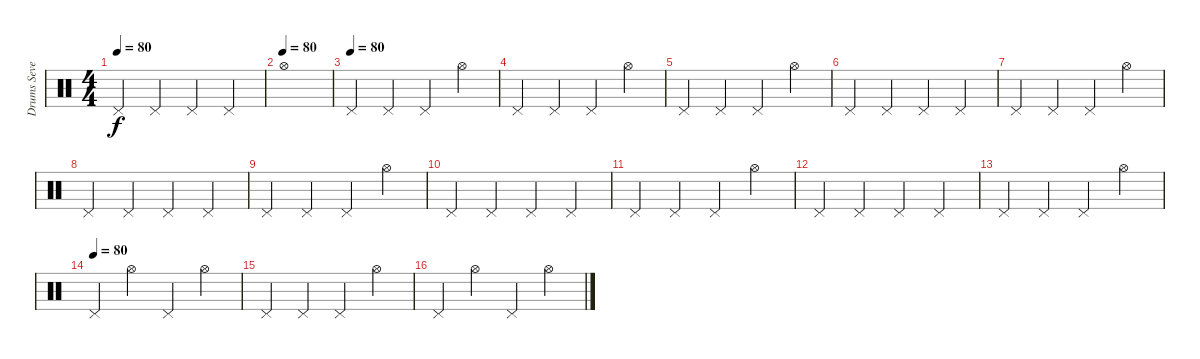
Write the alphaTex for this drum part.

\track ("Drums Severin " "Drums Seve") {instrument percussion}
\staff {score}
\articulation defaults
\ts (4 4)
\tempo 80
\clef neutral
\ks c "Pedal Hi-Hat (hit)".4{dy f} "Pedal Hi-Hat (hit)".4 "Pedal Hi-Hat (hit)".4 "Pedal Hi-Hat (hit)".4
|
\tempo (80)
"Hi-Hat (open)".1 |
\tempo (80)
"Pedal Hi-Hat (hit)".4 "Pedal Hi-Hat (hit)".4 "Pedal Hi-Hat (hit)".4 "Hi-Hat (open)".4 |
"Pedal Hi-Hat (hit)".4 "Pedal Hi-Hat (hit)".4 "Pedal Hi-Hat (hit)".4 "Hi-Hat (open)".4 |
"Pedal Hi-Hat (hit)".4 "Pedal Hi-Hat (hit)".4 "Pedal Hi-Hat (hit)".4 "Hi-Hat (open)".4 |
"Pedal Hi-Hat (hit)".4 "Pedal Hi-Hat (hit)".4 "Pedal Hi-Hat (hit)".4 "Pedal Hi-Hat (hit)".4 |
"Pedal Hi-Hat (hit)".4 "Pedal Hi-Hat (hit)".4 "Pedal Hi-Hat (hit)".4 "Hi-Hat (open)".4 |
"Pedal Hi-Hat (hit)".4 "Pedal Hi-Hat (hit)".4 "Pedal Hi-Hat (hit)".4 "Pedal Hi-Hat (hit)".4 |
"Pedal Hi-Hat (hit)".4 "Pedal Hi-Hat (hit)".4 "Pedal Hi-Hat (hit)".4 "Hi-Hat (open)".4 |
"Pedal Hi-Hat (hit)".4 "Pedal Hi-Hat (hit)".4 "Pedal Hi-Hat (hit)".4 "Pedal Hi-Hat (hit)".4 |
"Pedal Hi-Hat (hit)".4 "Pedal Hi-Hat (hit)".4 "Pedal Hi-Hat (hit)".4 "Hi-Hat (open)".4 |
"Pedal Hi-Hat (hit)".4 "Pedal Hi-Hat (hit)".4 "Pedal Hi-Hat (hit)".4 "Pedal Hi-Hat (hit)".4 |
"Pedal Hi-Hat (hit)".4 "Pedal Hi-Hat (hit)".4 "Pedal Hi-Hat (hit)".4 "Hi-Hat (open)".4 |
\tempo (80)
"Pedal Hi-Hat (hit)".4 "Hi-Hat (open)".4 "Pedal Hi-Hat (hit)".4 "Hi-Hat (open)".4 |
"Pedal Hi-Hat (hit)".4 "Pedal Hi-Hat (hit)".4 "Pedal Hi-Hat (hit)".4 "Hi-Hat (open)".4 |
"Pedal Hi-Hat (hit)".4 "Hi-Hat (open)".4 "Pedal Hi-Hat (hit)".4 "Hi-Hat (open)".4
